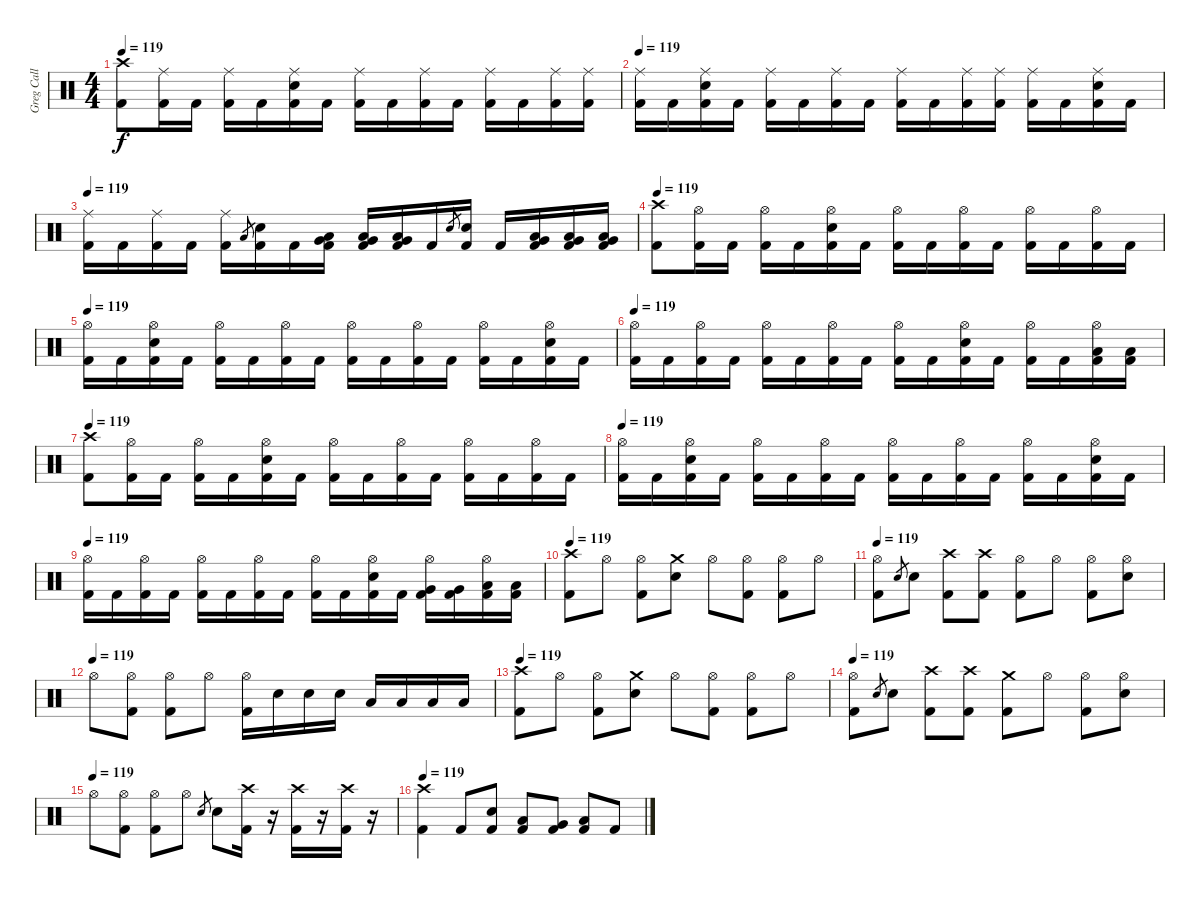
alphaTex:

\track ("Greg Call (Drums)" "Greg Call ") {instrument percussion}
\staff {score}
\articulation defaults
\ts (4 4)
\tempo 119
\clef neutral
\ks c
("Crash high (hit)" "Kick (hit) 2").8{dy f} ("Ride (middle)" "Kick (hit) 2").16 "Kick (hit) 2".16 ("Ride (middle)" "Kick (hit) 2").16 "Kick (hit) 2".16 ("Snare (hit) 2" "Ride (middle)" "Kick (hit) 2").16 "Kick (hit) 2".16 ("Ride (middle)" "Kick (hit) 2").16 "Kick (hit) 2".16 ("Ride (middle)" "Kick (hit) 2").16 "Kick (hit) 2".16 ("Ride (middle)" "Kick (hit) 2").16 "Kick (hit) 2".16 ("Ride (middle)" "Kick (hit) 2").16 ("Ride (middle)" "Kick (hit) 2").16 |
\tempo 119
("Ride (middle)" "Kick (hit) 2").16 "Kick (hit) 2".16 ("Snare (hit) 2" "Ride (middle)" "Kick (hit) 2").16 "Kick (hit) 2".16 ("Ride (middle)" "Kick (hit) 2").16 "Kick (hit) 2".16 ("Ride (middle)" "Kick (hit) 2").16 "Kick (hit) 2".16 ("Ride (middle)" "Kick (hit) 2").16 "Kick (hit) 2".16 ("Ride (middle)" "Kick (hit) 2").16 ("Ride (middle)" "Kick (hit) 2").16 ("Ride (middle)" "Kick (hit) 2").16 "Kick (hit) 2".16 ("Snare (hit) 2" "Ride (middle)" "Kick (hit) 2").16 "Kick (hit) 2".16 |
\tempo 119
("Ride (middle)" "Kick (hit) 2").16 "Kick (hit) 2".16 ("Ride (middle)" "Kick (hit) 2").16 "Kick (hit) 2".16 ("Ride (middle)" "Kick (hit) 2").16 "Low Floor Tom (hit)".8{gr} ("Snare (hit) 2" "Kick (hit) 2").16 "Kick (hit) 2".16 ("Very Low Tom (hit)" "Low Tom (hit)" "Kick (hit) 2").16 ("Very Low Tom (hit)" "Low Tom (hit)" "Kick (hit) 2").16 ("Very Low Tom (hit)" "Low Tom (hit)" "Kick (hit) 2").16 "Kick (hit) 2".16 "Snare (hit) 2".8{gr} ("Snare (hit) 2" "Kick (hit) 2").16 "Kick (hit) 2".16 ("Very Low Tom (hit)" "Low Tom (hit)" "Kick (hit) 2").16 ("Very Low Tom (hit)" "Low Tom (hit)" "Kick (hit) 2").16 ("Very Low Tom (hit)" "Low Tom (hit)" "Kick (hit) 2").16 |
\tempo 119
("Crash high (hit)" "Kick (hit) 2").8 ("Hi-Hat (open)" "Kick (hit) 2").16 "Kick (hit) 2".16 ("Hi-Hat (open)" "Kick (hit) 2").16 "Kick (hit) 2".16 ("Snare (hit) 2" "Hi-Hat (open)" "Kick (hit) 2").16 "Kick (hit) 2".16 ("Hi-Hat (open)" "Kick (hit) 2").16 "Kick (hit) 2".16 ("Hi-Hat (open)" "Kick (hit) 2").16 "Kick (hit) 2".16 ("Hi-Hat (open)" "Kick (hit) 2").16 "Kick (hit) 2".16 ("Hi-Hat (open)" "Kick (hit) 2").16 "Kick (hit) 2".16 |
\tempo 119
("Hi-Hat (open)" "Kick (hit) 2").16 "Kick (hit) 2".16 ("Snare (hit) 2" "Hi-Hat (open)" "Kick (hit) 2").16 "Kick (hit) 2".16 ("Hi-Hat (open)" "Kick (hit) 2").16 "Kick (hit) 2".16 ("Hi-Hat (open)" "Kick (hit) 2").16 "Kick (hit) 2".16 ("Hi-Hat (open)" "Kick (hit) 2").16 "Kick (hit) 2".16 ("Hi-Hat (open)" "Kick (hit) 2").16 "Kick (hit) 2".16 ("Hi-Hat (open)" "Kick (hit) 2").16 "Kick (hit) 2".16 ("Snare (hit) 2" "Hi-Hat (open)" "Kick (hit) 2").16 "Kick (hit) 2".16 |
\tempo 119
("Hi-Hat (open)" "Kick (hit) 2").16 "Kick (hit) 2".16 ("Hi-Hat (open)" "Kick (hit) 2").16 "Kick (hit) 2".16 ("Hi-Hat (open)" "Kick (hit) 2").16 "Kick (hit) 2".16 ("Hi-Hat (open)" "Kick (hit) 2").16 "Kick (hit) 2".16 ("Hi-Hat (open)" "Kick (hit) 2").16 "Kick (hit) 2".16 ("Hi-Hat (open)" "Snare (hit) 2" "Kick (hit) 2").16 "Kick (hit) 2".16 ("Hi-Hat (open)" "Kick (hit) 2").16 "Kick (hit) 2".16 ("Low Floor Tom (hit)" "Hi-Hat (open)" "Kick (hit) 2").16 ("Low Floor Tom (hit)" "Kick (hit) 2").16 |
\tempo 119
("Crash high (hit)" "Kick (hit) 2").8 ("Hi-Hat (open)" "Kick (hit) 2").16 "Kick (hit) 2".16 ("Hi-Hat (open)" "Kick (hit) 2").16 "Kick (hit) 2".16 ("Snare (hit) 2" "Hi-Hat (open)" "Kick (hit) 2").16 "Kick (hit) 2".16 ("Hi-Hat (open)" "Kick (hit) 2").16 "Kick (hit) 2".16 ("Hi-Hat (open)" "Kick (hit) 2").16 "Kick (hit) 2".16 ("Hi-Hat (open)" "Kick (hit) 2").16 "Kick (hit) 2".16 ("Hi-Hat (open)" "Kick (hit) 2").16 "Kick (hit) 2".16 |
\tempo 119
("Hi-Hat (open)" "Kick (hit) 2").16 "Kick (hit) 2".16 ("Snare (hit) 2" "Hi-Hat (open)" "Kick (hit) 2").16 "Kick (hit) 2".16 ("Hi-Hat (open)" "Kick (hit) 2").16 "Kick (hit) 2".16 ("Hi-Hat (open)" "Kick (hit) 2").16 "Kick (hit) 2".16 ("Hi-Hat (open)" "Kick (hit) 2").16 "Kick (hit) 2".16 ("Hi-Hat (open)" "Kick (hit) 2").16 "Kick (hit) 2".16 ("Hi-Hat (open)" "Kick (hit) 2").16 "Kick (hit) 2".16 ("Snare (hit) 2" "Hi-Hat (open)" "Kick (hit) 2").16 "Kick (hit) 2".16 |
\tempo 119
("Hi-Hat (open)" "Kick (hit) 2").16 "Kick (hit) 2".16 ("Hi-Hat (open)" "Kick (hit) 2").16 "Kick (hit) 2".16 ("Hi-Hat (open)" "Kick (hit) 2").16 "Kick (hit) 2".16 ("Hi-Hat (open)" "Kick (hit) 2").16 "Kick (hit) 2".16 ("Hi-Hat (open)" "Kick (hit) 2").16 "Kick (hit) 2".16 ("Hi-Hat (open)" "Snare (hit) 2" "Kick (hit) 2").16 "Kick (hit) 2".16 ("Very Low Tom (hit)" "Hi-Hat (open)" "Kick (hit) 2").16 ("Very Low Tom (hit)" "Kick (hit) 2").16 ("Low Floor Tom (hit)" "Hi-Hat (open)" "Kick (hit) 2").16 ("Low Floor Tom (hit)" "Kick (hit) 2").16 |
\tempo 119
("Crash high (hit)" "Kick (hit) 2").8 "Hi-Hat (open)".8 ("Hi-Hat (open)" "Kick (hit) 2").8 ("Crash medium (hit)" "Snare (hit) 2").8 "Hi-Hat (open)".8 ("Hi-Hat (open)" "Kick (hit) 2").8 ("Hi-Hat (open)" "Kick (hit) 2").8 "Hi-Hat (open)".8 |
\tempo 119
("Hi-Hat (open)" "Kick (hit) 2").8 "Snare (hit) 2".8{gr} "Snare (hit) 2".8 ("Crash high (hit)" "Kick (hit) 2").8 ("Crash high (hit)" "Kick (hit) 2").8 ("Hi-Hat (open)" "Kick (hit) 2").8 "Hi-Hat (open)".8 ("Hi-Hat (open)" "Kick (hit) 2").8 ("Hi-Hat (open)" "Snare (hit) 2").8 |
\tempo (119)
"Hi-Hat (open)".8 ("Hi-Hat (open)" "Kick (hit) 2").8 ("Hi-Hat (open)" "Kick (hit) 2").8 "Hi-Hat (open)".8 ("Hi-Hat (open)" "Kick (hit) 2").16 "Snare (hit) 2".16 "Snare (hit) 2".16 "Snare (hit) 2".16 "Low Tom (hit)".16 "Low Tom (hit)".16 "Low Floor Tom (hit)".16 "Low Floor Tom (hit)".16 |
\tempo 119
("Crash high (hit)" "Kick (hit) 2").8 "Hi-Hat (open)".8 ("Hi-Hat (open)" "Kick (hit) 2").8 ("Crash medium (hit)" "Snare (hit) 2").8 "Hi-Hat (open)".8 ("Hi-Hat (open)" "Kick (hit) 2").8 ("Hi-Hat (open)" "Kick (hit) 2").8 "Hi-Hat (open)".8 |
\tempo 119
("Hi-Hat (open)" "Kick (hit) 2").8 "Snare (hit) 2".8{gr} "Snare (hit) 2".8 ("Crash high (hit)" "Kick (hit) 2").8 ("Crash high (hit)" "Kick (hit) 2").8 ("Crash medium (hit)" "Kick (hit) 2").8 "Hi-Hat (open)".8 ("Hi-Hat (open)" "Kick (hit) 2").8 ("Hi-Hat (open)" "Snare (hit) 2").8 |
\tempo (119)
"Hi-Hat (open)".8 ("Hi-Hat (open)" "Kick (hit) 2").8 ("Hi-Hat (open)" "Kick (hit) 2").8 "Hi-Hat (open)".8 "Snare (hit) 2".8{gr} "Snare (hit) 2".8 ("Crash high (hit)" "Kick (hit) 2").16 r.16{volume 0} ("Crash high (hit)" "Kick (hit) 2").16{volume 16} r.16{volume 0} ("Crash high (hit)" "Kick (hit) 2").16{volume 16} r.16{volume 0} |
\tempo 119
("Crash high (hit)" "Kick (hit) 2").4{volume 16} "Kick (hit) 2".8 ("Snare (hit) 2" "Kick (hit) 2").8 ("Low Tom (hit)" "Kick (hit) 2").8 ("Very Low Tom (hit)" "Kick (hit) 2").8 ("Low Floor Tom (hit)" "Kick (hit) 2").8 "Kick (hit) 2".8
